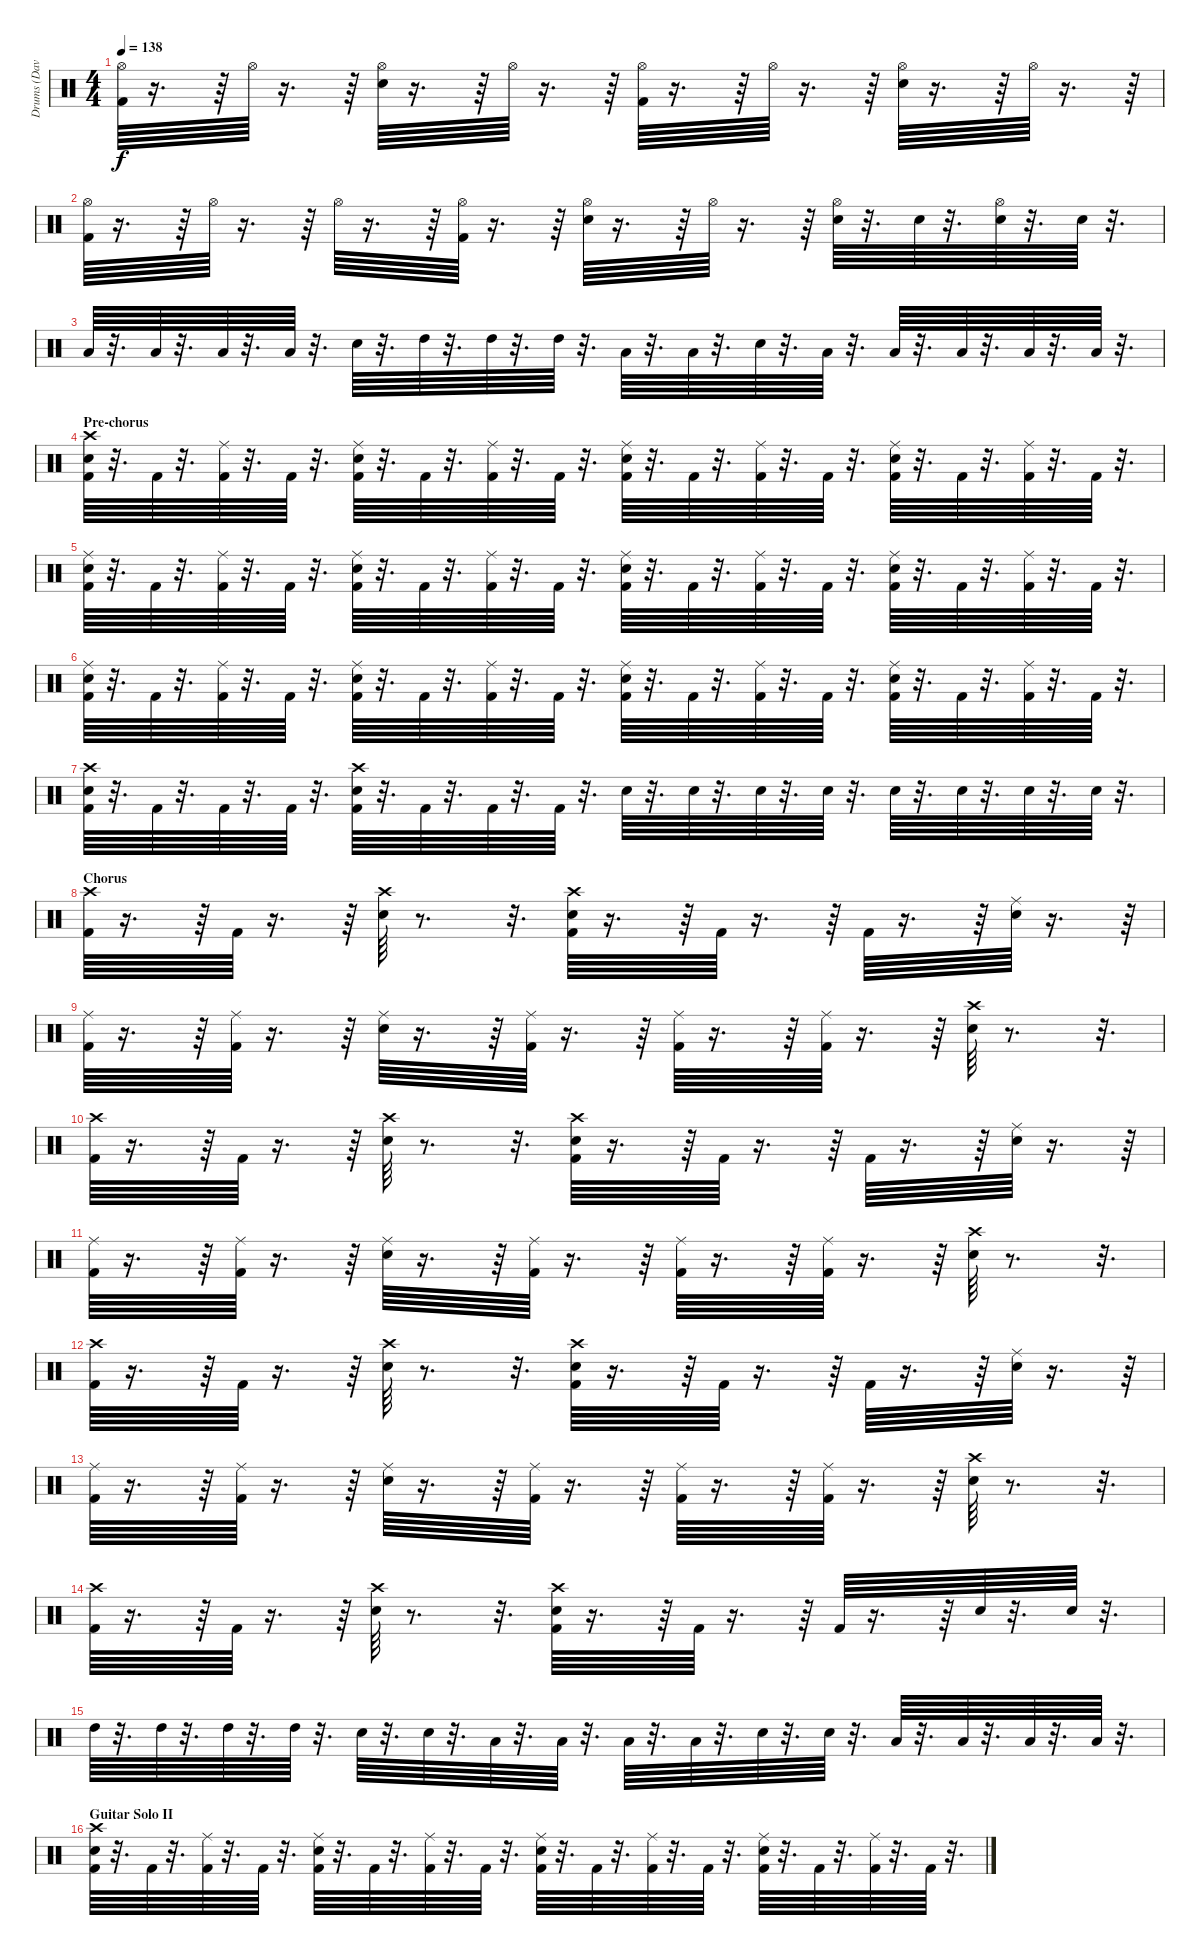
\track ("Drums (Dave)" "Drums (Dav") {instrument percussion}
\staff {score}
\articulation defaults
\ts (4 4)
\tempo 138
\clef neutral
\ks c
("Kick (hit) 2" "Hi-Hat (open)").64{dy f} r.16{d} r.64 "Hi-Hat (open)".64 r.16{d} r.64 ("Snare (hit) 2" "Hi-Hat (open)").64 r.16{d} r.64 "Hi-Hat (open)".64 r.16{d} r.64 ("Kick (hit) 2" "Hi-Hat (open)").64 r.16{d} r.64 "Hi-Hat (open)".64 r.16{d} r.64 ("Snare (hit) 2" "Hi-Hat (open)").64 r.16{d} r.64 "Hi-Hat (open)".64 r.16{d} r.64 |
("Hi-Hat (open)" "Kick (hit) 2").64 r.16{d} r.64 "Hi-Hat (open)".64 r.16{d} r.64 "Hi-Hat (open)".64 r.16{d} r.64 ("Hi-Hat (open)" "Kick (hit) 2").64 r.16{d} r.64 ("Hi-Hat (open)" "Snare (hit) 2").64 r.16{d} r.64 "Hi-Hat (open)".64 r.16{d} r.64 ("Hi-Hat (open)" "Snare (hit) 2").64 r.32{d} "Snare (hit) 2".64 r.32{d} ("Hi-Hat (open)" "Snare (hit) 2").64 r.32{d} "Snare (hit) 2".64 r.32{d} |
"Low Tom (hit)".64 r.32{d} "Low Tom (hit)".64 r.32{d} "Low Tom (hit)".64 r.32{d} "Low Tom (hit)".64 r.32{d} "Snare (hit) 2".64 r.32{d} "High Tom (hit)".64 r.32{d} "High Tom (hit)".64 r.32{d} "High Tom (hit)".64 r.32{d} "Low Tom (hit)".64 r.32{d} "Low Tom (hit)".64 r.32{d} "Snare (hit) 2".64 r.32{d} "Low Tom (hit)".64 r.32{d} "Low Floor Tom (hit)".64 r.32{d} "Low Floor Tom (hit)".64 r.32{d} "Low Floor Tom (hit)".64 r.32{d} "Low Floor Tom (hit)".64 r.32{d} |
\section ("" "Pre-chorus")
("Kick (hit) 2" "Snare (hit) 2" "Crash high (hit)").64 r.32{d} "Kick (hit) 2".64 r.32{d} ("Kick (hit) 2" "Ride (middle)").64 r.32{d} "Kick (hit) 2".64 r.32{d} ("Kick (hit) 2" "Snare (hit) 2" "Ride (middle)").64 r.32{d} "Kick (hit) 2".64 r.32{d} ("Kick (hit) 2" "Ride (middle)").64 r.32{d} "Kick (hit) 2".64 r.32{d} ("Kick (hit) 2" "Snare (hit) 2" "Ride (middle)").64 r.32{d} "Kick (hit) 2".64 r.32{d} ("Kick (hit) 2" "Ride (middle)").64 r.32{d} "Kick (hit) 2".64 r.32{d} ("Kick (hit) 2" "Snare (hit) 2" "Ride (middle)").64 r.32{d} "Kick (hit) 2".64 r.32{d} ("Kick (hit) 2" "Ride (middle)").64 r.32{d} "Kick (hit) 2".64 r.32{d} |
("Kick (hit) 2" "Snare (hit) 2" "Ride (middle)").64 r.32{d} "Kick (hit) 2".64 r.32{d} ("Kick (hit) 2" "Ride (middle)").64 r.32{d} "Kick (hit) 2".64 r.32{d} ("Kick (hit) 2" "Snare (hit) 2" "Ride (middle)").64 r.32{d} "Kick (hit) 2".64 r.32{d} ("Kick (hit) 2" "Ride (middle)").64 r.32{d} "Kick (hit) 2".64 r.32{d} ("Kick (hit) 2" "Snare (hit) 2" "Ride (middle)").64 r.32{d} "Kick (hit) 2".64 r.32{d} ("Kick (hit) 2" "Ride (middle)").64 r.32{d} "Kick (hit) 2".64 r.32{d} ("Kick (hit) 2" "Snare (hit) 2" "Ride (middle)").64 r.32{d} "Kick (hit) 2".64 r.32{d} ("Kick (hit) 2" "Ride (middle)").64 r.32{d} "Kick (hit) 2".64 r.32{d} |
("Kick (hit) 2" "Snare (hit) 2" "Ride (middle)").64 r.32{d} "Kick (hit) 2".64 r.32{d} ("Kick (hit) 2" "Ride (middle)").64 r.32{d} "Kick (hit) 2".64 r.32{d} ("Kick (hit) 2" "Snare (hit) 2" "Ride (middle)").64 r.32{d} "Kick (hit) 2".64 r.32{d} ("Kick (hit) 2" "Ride (middle)").64 r.32{d} "Kick (hit) 2".64 r.32{d} ("Kick (hit) 2" "Snare (hit) 2" "Ride (middle)").64 r.32{d} "Kick (hit) 2".64 r.32{d} ("Kick (hit) 2" "Ride (middle)").64 r.32{d} "Kick (hit) 2".64 r.32{d} ("Kick (hit) 2" "Snare (hit) 2" "Ride (middle)").64 r.32{d} "Kick (hit) 2".64 r.32{d} ("Kick (hit) 2" "Ride (middle)").64 r.32{d} "Kick (hit) 2".64 r.32{d} |
("Crash high (hit)" "Kick (hit) 2" "Snare (hit) 2").64 r.32{d} "Kick (hit) 2".64 r.32{d} "Kick (hit) 2".64 r.32{d} "Kick (hit) 2".64 r.32{d} ("Kick (hit) 2" "Crash high (hit)" "Snare (hit) 2").64 r.32{d} "Kick (hit) 2".64 r.32{d} "Kick (hit) 2".64 r.32{d} "Kick (hit) 2".64 r.32{d} "Snare (hit) 2".64 r.32{d} "Snare (hit) 2".64 r.32{d} "Snare (hit) 2".64 r.32{d} "Snare (hit) 2".64 r.32{d} "Snare (hit) 2".64 r.32{d} "Snare (hit) 2".64 r.32{d} "Snare (hit) 2".64 r.32{d} "Snare (hit) 2".64 r.32{d} |
\section ("" "Chorus")
("Kick (hit) 2" "Crash high (hit)").64 r.16{d} r.64 "Kick (hit) 2".64 r.16{d} r.64 ("Snare (hit) 2" "Crash high (hit)").64 r.8{d} r.32{d} ("Crash high (hit)" "Snare (hit) 2" "Kick (hit) 2").64 r.16{d} r.64 "Kick (hit) 2".64 r.16{d} r.64 "Kick (hit) 2".64 r.16{d} r.64 ("Ride (middle)" "Snare (hit) 2").64 r.16{d} r.64 |
("Ride (middle)" "Kick (hit) 2").64 r.16{d} r.64 ("Ride (middle)" "Kick (hit) 2").64 r.16{d} r.64 ("Ride (middle)" "Snare (hit) 2").64 r.16{d} r.64 ("Ride (middle)" "Kick (hit) 2").64 r.16{d} r.64 ("Ride (middle)" "Kick (hit) 2").64 r.16{d} r.64 ("Ride (middle)" "Kick (hit) 2").64 r.16{d} r.64 ("Snare (hit) 2" "Crash high (hit)").64 r.8{d} r.32{d} |
("Kick (hit) 2" "Crash high (hit)").64 r.16{d} r.64 "Kick (hit) 2".64 r.16{d} r.64 ("Snare (hit) 2" "Crash high (hit)").64 r.8{d} r.32{d} ("Crash high (hit)" "Snare (hit) 2" "Kick (hit) 2").64 r.16{d} r.64 "Kick (hit) 2".64 r.16{d} r.64 "Kick (hit) 2".64 r.16{d} r.64 ("Snare (hit) 2" "Ride (middle)").64 r.16{d} r.64 |
("Ride (middle)" "Kick (hit) 2").64 r.16{d} r.64 ("Ride (middle)" "Kick (hit) 2").64 r.16{d} r.64 ("Ride (middle)" "Snare (hit) 2").64 r.16{d} r.64 ("Ride (middle)" "Kick (hit) 2").64 r.16{d} r.64 ("Ride (middle)" "Kick (hit) 2").64 r.16{d} r.64 ("Ride (middle)" "Kick (hit) 2").64 r.16{d} r.64 ("Snare (hit) 2" "Crash high (hit)").64 r.8{d} r.32{d} |
("Kick (hit) 2" "Crash high (hit)").64 r.16{d} r.64 "Kick (hit) 2".64 r.16{d} r.64 ("Snare (hit) 2" "Crash high (hit)").64 r.8{d} r.32{d} ("Crash high (hit)" "Snare (hit) 2" "Kick (hit) 2").64 r.16{d} r.64 "Kick (hit) 2".64 r.16{d} r.64 "Kick (hit) 2".64 r.16{d} r.64 ("Ride (middle)" "Snare (hit) 2").64 r.16{d} r.64 |
("Ride (middle)" "Kick (hit) 2").64 r.16{d} r.64 ("Ride (middle)" "Kick (hit) 2").64 r.16{d} r.64 ("Ride (middle)" "Snare (hit) 2").64 r.16{d} r.64 ("Ride (middle)" "Kick (hit) 2").64 r.16{d} r.64 ("Ride (middle)" "Kick (hit) 2").64 r.16{d} r.64 ("Ride (middle)" "Kick (hit) 2").64 r.16{d} r.64 ("Snare (hit) 2" "Crash high (hit)").64 r.8{d} r.32{d} |
("Kick (hit) 2" "Crash high (hit)").64 r.16{d} r.64 "Kick (hit) 2".64 r.16{d} r.64 ("Snare (hit) 2" "Crash high (hit)").64 r.8{d} r.32{d} ("Crash high (hit)" "Snare (hit) 2" "Kick (hit) 2").64 r.16{d} r.64 "Kick (hit) 2".64 r.16{d} r.64 "Kick (hit) 2".64 r.16{d} r.64 "Snare (hit) 2".64 r.32{d} "Snare (hit) 2".64 r.32{d} |
"High Tom (hit)".64 r.32{d} "High Tom (hit)".64 r.32{d} "High Tom (hit)".64 r.32{d} "High Tom (hit)".64 r.32{d} "Snare (hit) 2".64 r.32{d} "Snare (hit) 2".64 r.32{d} "Low Tom (hit)".64 r.32{d} "Low Tom (hit)".64 r.32{d} "Low Tom (hit)".64 r.32{d} "Low Tom (hit)".64 r.32{d} "Snare (hit) 2".64 r.32{d} "Snare (hit) 2".64 r.32{d} "Low Floor Tom (hit)".64 r.32{d} "Low Floor Tom (hit)".64 r.32{d} "Low Floor Tom (hit)".64 r.32{d} "Low Floor Tom (hit)".64 r.32{d} |
\section ("" "Guitar Solo II")
("Kick (hit) 2" "Snare (hit) 2" "Crash high (hit)").64 r.32{d} "Kick (hit) 2".64 r.32{d} ("Kick (hit) 2" "Ride (middle)").64 r.32{d} "Kick (hit) 2".64 r.32{d} ("Kick (hit) 2" "Snare (hit) 2" "Ride (middle)").64 r.32{d} "Kick (hit) 2".64 r.32{d} ("Kick (hit) 2" "Ride (middle)").64 r.32{d} "Kick (hit) 2".64 r.32{d} ("Kick (hit) 2" "Snare (hit) 2" "Ride (middle)").64 r.32{d} "Kick (hit) 2".64 r.32{d} ("Kick (hit) 2" "Ride (middle)").64 r.32{d} "Kick (hit) 2".64 r.32{d} ("Kick (hit) 2" "Snare (hit) 2" "Ride (middle)").64 r.32{d} "Kick (hit) 2".64 r.32{d} ("Kick (hit) 2" "Ride (middle)").64 r.32{d} "Kick (hit) 2".64 r.32{d}
